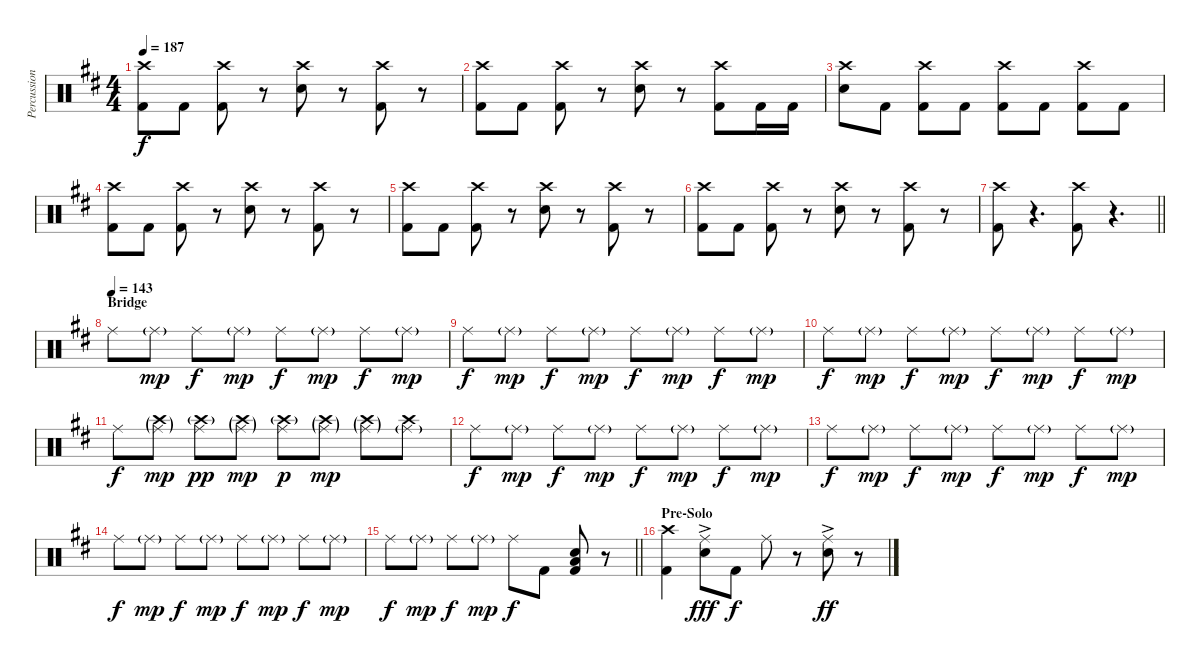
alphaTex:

\track ("Percussion" "Percussion") {instrument percussion}
\staff {score}
\articulation defaults
\ts (4 4)
\tempo 187
\clef neutral
\ks d
("Crash high (hit)" "Kick (hit) 2").8{dy f} "Kick (hit) 2".8 ("Crash high (hit)" "Kick (hit) 2").8 r.8 ("Crash high (hit)" "Snare (hit) 2").8 r.8 ("Crash high (hit)" "Kick (hit) 2").8 r.8 |
("Crash high (hit)" "Kick (hit) 2").8 "Kick (hit) 2".8 ("Crash high (hit)" "Kick (hit) 2").8 r.8 ("Crash high (hit)" "Snare (hit) 2").8 r.8 ("Crash high (hit)" "Kick (hit) 2").8 "Kick (hit) 2".16 "Kick (hit) 2".16 |
("Crash high (hit)" "Snare (hit) 2").8 "Kick (hit) 2".8 ("Crash high (hit)" "Kick (hit) 2").8 "Kick (hit) 2".8 ("Crash high (hit)" "Kick (hit) 2").8 "Kick (hit) 2".8 ("Crash high (hit)" "Kick (hit) 2").8 "Kick (hit) 2".8 |
("Crash high (hit)" "Kick (hit) 2").8 "Kick (hit) 2".8 ("Crash high (hit)" "Kick (hit) 2").8 r.8 ("Crash high (hit)" "Snare (hit) 2").8 r.8 ("Crash high (hit)" "Kick (hit) 2").8 r.8 |
("Crash high (hit)" "Kick (hit) 2").8 "Kick (hit) 2".8 ("Crash high (hit)" "Kick (hit) 2").8 r.8 ("Crash high (hit)" "Snare (hit) 2").8 r.8 ("Crash high (hit)" "Kick (hit) 2").8 r.8 |
("Crash high (hit)" "Kick (hit) 2").8 "Kick (hit) 2".8 ("Crash high (hit)" "Kick (hit) 2").8 r.8 ("Crash high (hit)" "Snare (hit) 2").8 r.8 ("Crash high (hit)" "Kick (hit) 2").8 r.8 |
\barLineRight lightlight
("Crash high (hit)" "Kick (hit) 2").8 r.4{d} ("Crash high (hit)" "Kick (hit) 2").8 r.4{d} |
\section ("" "Bridge")
\tempo (143)
"Ride (middle)".8 "Ride (middle)"{g}.8{dy mp} "Ride (middle)".8{dy f} "Ride (middle)"{g}.8{dy mp} "Ride (middle)".8{dy f} "Ride (middle)"{g}.8{dy mp} "Ride (middle)".8{dy f} "Ride (middle)"{g}.8{dy mp} |
"Ride (middle)".8{dy f} "Ride (middle)"{g}.8{dy mp} "Ride (middle)".8{dy f} "Ride (middle)"{g}.8{dy mp} "Ride (middle)".8{dy f} "Ride (middle)"{g}.8{dy mp} "Ride (middle)".8{dy f} "Ride (middle)"{g}.8{dy mp} |
"Ride (middle)".8{dy f} "Ride (middle)"{g}.8{dy mp} "Ride (middle)".8{dy f} "Ride (middle)"{g}.8{dy mp} "Ride (middle)".8{dy f} "Ride (middle)"{g}.8{dy mp} "Ride (middle)".8{dy f} "Ride (middle)"{g}.8{dy mp} |
"Ride (middle)".8{dy f} ("Crash high (hit)"{g} "Ride (middle)"{g}).8{dy mp} ("Crash high (hit)"{g} "Ride (middle)").8{dy pp} ("Crash high (hit)"{g} "Ride (middle)"{g}).8{dy mp} ("Crash high (hit)"{g} "Ride (middle)").8{dy p} ("Crash high (hit)"{g} "Ride (middle)"{g}).8{dy mp} ("Crash high (hit)"{g} "Ride (middle)"{g}).8 ("Crash high (hit)" "Ride (middle)"{g}).8 |
"Ride (middle)".8{dy f} "Ride (middle)"{g}.8{dy mp} "Ride (middle)".8{dy f} "Ride (middle)"{g}.8{dy mp} "Ride (middle)".8{dy f} "Ride (middle)"{g}.8{dy mp} "Ride (middle)".8{dy f} "Ride (middle)"{g}.8{dy mp} |
"Ride (middle)".8{dy f} "Ride (middle)"{g}.8{dy mp} "Ride (middle)".8{dy f} "Ride (middle)"{g}.8{dy mp} "Ride (middle)".8{dy f} "Ride (middle)"{g}.8{dy mp} "Ride (middle)".8{dy f} "Ride (middle)"{g}.8{dy mp} |
"Ride (middle)".8{dy f} "Ride (middle)"{g}.8{dy mp} "Ride (middle)".8{dy f} "Ride (middle)"{g}.8{dy mp} "Ride (middle)".8{dy f} "Ride (middle)"{g}.8{dy mp} "Ride (middle)".8{dy f} "Ride (middle)"{g}.8{dy mp} |
\barLineRight lightlight "Ride (middle)".8{dy f} "Ride (middle)"{g}.8{dy mp} "Ride (middle)".8{dy f} "Ride (middle)"{g}.8{dy mp} "Ride (middle)".8{dy f} "Kick (hit) 2".8
("Snare (hit) 2" "Low Tom (hit)" "Kick (hit) 2").8 r.8 |
\section ("" "Pre-Solo")
("Crash high (hit)" "Kick (hit) 2").4 ("Ride (middle)"{ac} "Snare (hit) 2").8{dy fff} "Kick (hit) 2".8{dy f} "Ride (middle)".8 r.8 ("Ride (middle)"{ac} "Snare (hit) 2").8{dy ff} r.8
